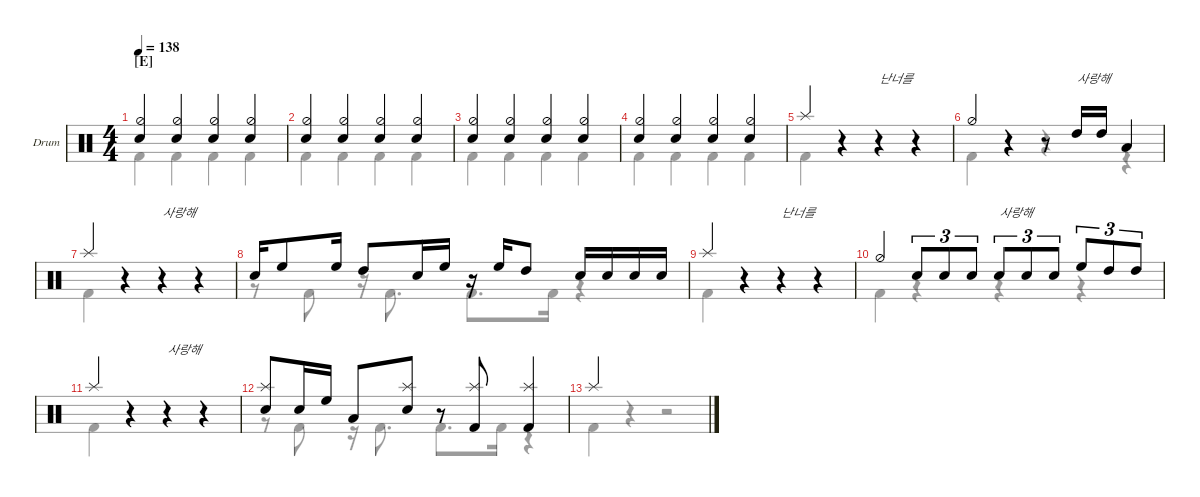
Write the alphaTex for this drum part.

\defaultSystemsLayout 4
\hideDynamics
\bracketExtendMode nobrackets
\firstSystemTrackNameOrientation horizontal
\track ("Drumkit" "Drum") {instrument percussion}
\staff {score}
\articulation defaults
\voice
\ts (4 4)
\section ("E" "")
\tempo 138
\clef neutral
\ks c
("Snare (hit) 2" "Hi-Hat (half)").4{dy mf beam Up} ("Snare (hit) 2" "Hi-Hat (half)").4{beam Up} ("Snare (hit) 2" "Hi-Hat (half)").4{beam Up} ("Snare (hit) 2" "Hi-Hat (half)").4{beam Up} |
("Snare (hit) 2" "Hi-Hat (half)").4{beam Up} ("Snare (hit) 2" "Hi-Hat (half)").4{beam Up} ("Snare (hit) 2" "Hi-Hat (half)").4{beam Up} ("Snare (hit) 2" "Hi-Hat (half)").4{beam Up} |
("Snare (hit) 2" "Hi-Hat (half)").4{beam Up} ("Snare (hit) 2" "Hi-Hat (half)").4{beam Up} ("Snare (hit) 2" "Hi-Hat (half)").4{beam Up} ("Snare (hit) 2" "Hi-Hat (half)").4{beam Up} |
("Snare (hit) 2" "Hi-Hat (half)").4{beam Up} ("Snare (hit) 2" "Hi-Hat (half)").4{beam Up} ("Snare (hit) 2" "Hi-Hat (half)").4{beam Up} ("Snare (hit) 2" "Hi-Hat (half)").4{beam Up} |
"Splash (hit)".4{beam Up} r.4{beam Up} r.4{txt "난너를" beam Up} r.4{beam Up} |
"Hi-Hat (half)".4{beam Up} r.4{beam Up} r.8{beam Up} "High Tom (hit)".16{txt "사랑해" beam Up} "High Tom (hit)".16{beam Up} "Low Tom (hit)".4{beam Up} |
"Splash (hit)".4{beam Up} r.4{beam Up} r.4{txt "사랑해" beam Up} r.4{beam Up} |
"Snare (hit) 2".16{beam Up} "High Floor Tom (hit)".8{beam Up} "High Floor Tom (hit)".16{beam Up} "High Tom (hit)".8{beam Up} "Snare (hit) 2".16{beam Up} "High Floor Tom (hit)".16{beam Up} r.16{beam Up} "High Floor Tom (hit)".16{beam Up} "High Tom (hit)".8{beam Up} "Snare (hit) 2".16{beam Up} "Snare (hit) 2".16{beam Up} "Snare (hit) 2".16{beam Up} "Snare (hit) 2".16{beam Up} |
"Splash (hit)".4{beam Up} r.4{beam Up} r.4{txt "난너를" beam Up} r.4{beam Up} |
"Hi-Hat (half)".4{beam Up} "Snare (hit) 2".8{tu (3 2) beam Up} "Snare (hit) 2".8{tu (3 2) beam Up} "Snare (hit) 2".8{tu (3 2) beam Up} "Snare (hit) 2".8{tu (3 2) txt "사랑해" beam Up} "Snare (hit) 2".8{tu (3 2) beam Up} "Snare (hit) 2".8{tu (3 2) beam Up} "High Floor Tom (hit)".8{tu (3 2) beam Up} "High Tom (hit)".8{tu (3 2) beam Up} "High Tom (hit)".8{tu (3 2) beam Up} |
"Splash (hit)".4{beam Up} r.4{beam Up} r.4{txt "사랑해" beam Up} r.4{beam Up} |
("Splash (hit)" "Snare (hit) 2").8{beam Up} "Snare (hit) 2".16{beam Up} "High Floor Tom (hit)".16{beam Up} "Low Tom (hit)".8{beam Up} ("Snare (hit) 2" "Splash (hit)").8{beam Up} r.8{beam Up} ("Splash (hit)" "Kick (hit) 2").8{beam Up} ("Splash (hit)" "Kick (hit) 2").4{beam Up} |
"Splash (hit)".4{beam Up} |
|
|
\voice
\clef neutral
\ottava regular
\simile none
\ks c
|
|
|
|
|
|
|
|
|
|
|
|
|
|
|
\voice
\clef neutral
\ottava regular
\simile none
\ks c "Kick (hit) 2".4{dy mf beam Down} "Kick (hit) 2".4{beam Down} "Kick (hit) 2".4{beam Down} "Kick (hit) 2".4{beam Down}
|
"Kick (hit) 2".4{beam Down} "Kick (hit) 2".4{beam Down} "Kick (hit) 2".4{beam Down} "Kick (hit) 2".4{beam Down} |
"Kick (hit) 2".4{beam Down} "Kick (hit) 2".4{beam Down} "Kick (hit) 2".4{beam Down} "Kick (hit) 2".4{beam Down} |
"Kick (hit) 2".4{beam Down} "Kick (hit) 2".4{beam Down} "Kick (hit) 2".4{beam Down} "Kick (hit) 2".4{beam Down} |
"Kick (hit) 2".4{beam Down} r.4{beam Down} r.4{beam Down} r.4{beam Down} |
"Kick (hit) 2".4{beam Down} r.4{beam Down} r.4{beam Down} r.4{beam Down} |
"Kick (hit) 2".4{beam Down} r.4{beam Down} r.4{beam Down} r.4{beam Down} |
r.8{beam Down} "Kick (hit) 2".8{beam Down} r.16{beam Down} "Kick (hit) 2".8{d beam Down} "Kick (hit) 2".8{d beam Down} "Kick (hit) 2".16{beam Down} r.4{beam Down} |
"Kick (hit) 2".4{beam Down} r.4{beam Down} r.4{beam Down} r.4{beam Down} |
"Kick (hit) 2".4{beam Down} r.4{beam Down} r.4{beam Down} r.4{beam Down} |
"Kick (hit) 2".4{beam Down} r.4{beam Down} r.4{beam Down} r.4{beam Down} |
r.8{beam Down} "Kick (hit) 2".8{beam Down} r.16{beam Down} "Kick (hit) 2".8{d beam Down} "Kick (hit) 2".8{d beam Down} "Kick (hit) 2".16{beam Down} r.4{beam Down} |
"Kick (hit) 2".4{beam Down} r.4{beam Down} r.2{beam Down} |
|
|
